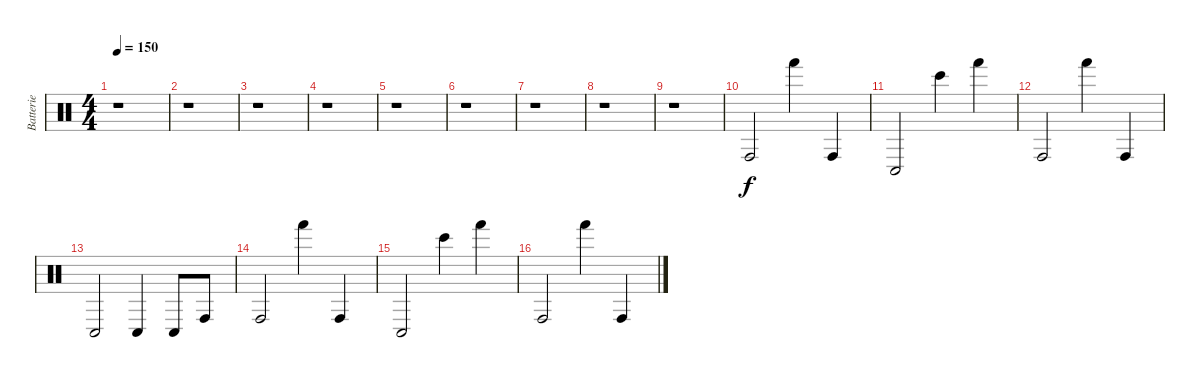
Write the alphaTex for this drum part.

\track ("Batterie" "Batterie") {instrument percussion}
\staff {score}
\articulation defaults
\ts (4 4)
\tempo 150
\clef neutral
\ks c
r.1{dy f} |
r.1 |
r.1 |
r.1 |
r.1 |
r.1 |
r.1 |
r.1 |
r.1 |
"Conga high (hit)".2 "Hand (hit)".4 "Conga high (hit)".4 |
"Conga low (hit)".2 "Bongo High (hit)".4 "Hand (hit)".4 |
"Conga high (hit)".2 "Hand (hit)".4 "Conga high (hit)".4 |
"Conga low (hit)".2 "Conga low (hit)".4 "Conga low (hit)".8 "Conga high (hit)".8 |
"Conga high (hit)".2 "Hand (hit)".4 "Conga high (hit)".4 |
"Conga low (hit)".2 "Bongo High (hit)".4 "Hand (hit)".4 |
"Conga high (hit)".2 "Hand (hit)".4 "Conga high (hit)".4
